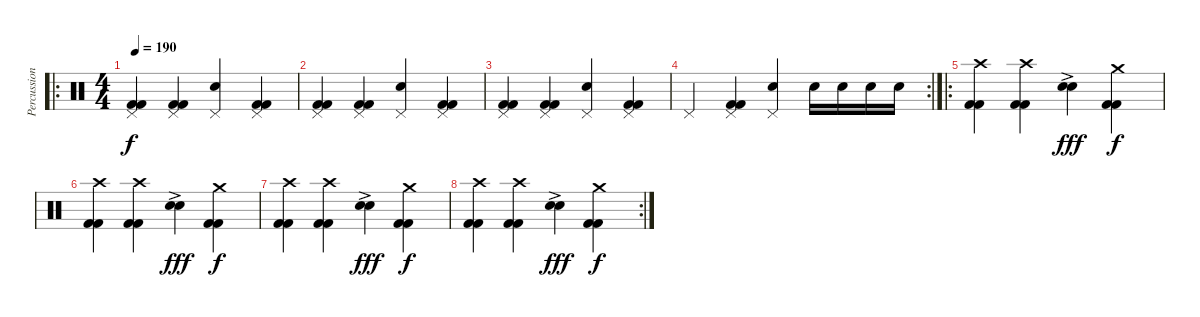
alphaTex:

\track ("Percussion" "Percussion") {instrument percussion}
\staff {score}
\articulation defaults
\ro
\ts (4 4)
\tempo 190
\clef neutral
\ks c
("Pedal Hi-Hat (hit)" "Kick (hit) 2" "Kick (hit) 2").4{dy f} ("Pedal Hi-Hat (hit)" "Kick (hit) 2" "Kick (hit) 2").4 ("Pedal Hi-Hat (hit)" "Electric Snare (hit)").4 ("Pedal Hi-Hat (hit)" "Kick (hit) 2" "Kick (hit) 2").4 |
("Pedal Hi-Hat (hit)" "Kick (hit) 2" "Kick (hit) 2").4 ("Pedal Hi-Hat (hit)" "Kick (hit) 2" "Kick (hit) 2").4 ("Pedal Hi-Hat (hit)" "Electric Snare (hit)").4 ("Pedal Hi-Hat (hit)" "Kick (hit) 2" "Kick (hit) 2").4 |
("Pedal Hi-Hat (hit)" "Kick (hit) 2" "Kick (hit) 2").4 ("Pedal Hi-Hat (hit)" "Kick (hit) 2" "Kick (hit) 2").4 ("Pedal Hi-Hat (hit)" "Electric Snare (hit)").4 ("Pedal Hi-Hat (hit)" "Kick (hit) 2" "Kick (hit) 2").4 |
\rc 2 "Pedal Hi-Hat (hit)".4
("Pedal Hi-Hat (hit)" "Kick (hit) 2" "Kick (hit) 2").4 ("Pedal Hi-Hat (hit)" "Electric Snare (hit)").4 "Electric Snare (hit)".16 "Electric Snare (hit)".16 "Electric Snare (hit)".16 "Electric Snare (hit)".16 |
\ro
("Crash high (hit)" "Kick (hit) 2" "Kick (hit) 2").4 ("Crash high (hit)" "Kick (hit) 2" "Kick (hit) 2").4 ("Electric Snare (hit)"{ac} "Electric Snare (hit)"{ac}).4{dy fff} ("Crash medium (hit)" "Kick (hit) 2" "Kick (hit) 2").4{dy f} |
("Crash high (hit)" "Kick (hit) 2" "Kick (hit) 2").4 ("Crash high (hit)" "Kick (hit) 2" "Kick (hit) 2").4 ("Electric Snare (hit)"{ac} "Electric Snare (hit)"{ac}).4{dy fff} ("Crash medium (hit)" "Kick (hit) 2" "Kick (hit) 2").4{dy f} |
("Crash high (hit)" "Kick (hit) 2" "Kick (hit) 2").4 ("Crash high (hit)" "Kick (hit) 2" "Kick (hit) 2").4 ("Electric Snare (hit)"{ac} "Electric Snare (hit)"{ac}).4{dy fff} ("Crash medium (hit)" "Kick (hit) 2" "Kick (hit) 2").4{dy f} |
\rc 2
("Crash high (hit)" "Kick (hit) 2" "Kick (hit) 2").4 ("Crash high (hit)" "Kick (hit) 2" "Kick (hit) 2").4 ("Electric Snare (hit)"{ac} "Electric Snare (hit)"{ac}).4{dy fff} ("Crash medium (hit)" "Kick (hit) 2" "Kick (hit) 2").4{dy f}
